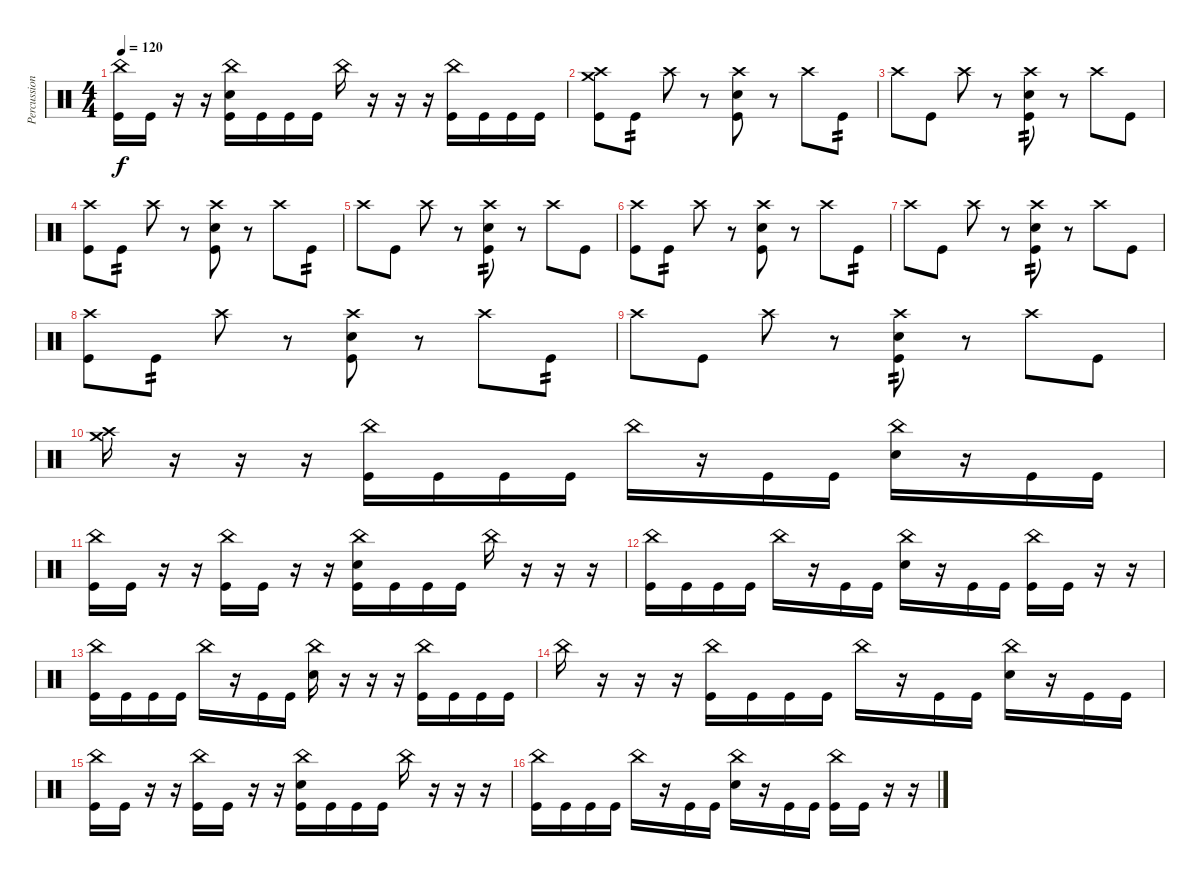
\track ("Percussion" "Percussion") {instrument percussion}
\staff {score}
\articulation defaults
\ts (4 4)
\tempo 120
\clef neutral
\ks c
("China (hit)" "Kick (hit)").16{dy f} "Kick (hit)".16 r.16 r.16 ("China (hit)" "Snare (hit) 2" "Kick (hit)").16 "Kick (hit)".16 "Kick (hit)".16 "Kick (hit)".16 "China (hit)".16 r.16 r.16 r.16 ("China (hit)" "Kick (hit)").16 "Kick (hit)".16 "Kick (hit)".16 "Kick (hit)".16 |
("Crash medium (hit)" "Crash high (hit)" "Kick (hit)").8 "Kick (hit)".8{tp 2} "Crash high (hit)".8 r.8 ("Crash high (hit)" "Snare (hit) 2" "Kick (hit)").8 r.8 "Crash high (hit)".8 "Kick (hit)".8{tp 2} |
"Crash high (hit)".8 "Kick (hit)".8 "Crash high (hit)".8 r.8 ("Crash high (hit)" "Snare (hit) 2" "Kick (hit)").8{tp 2} r.8 "Crash high (hit)".8 "Kick (hit)".8 |
("Crash high (hit)" "Kick (hit)").8 "Kick (hit)".8{tp 2} "Crash high (hit)".8 r.8 ("Crash high (hit)" "Snare (hit) 2" "Kick (hit)").8 r.8 "Crash high (hit)".8 "Kick (hit)".8{tp 2} |
"Crash high (hit)".8 "Kick (hit)".8 "Crash high (hit)".8 r.8 ("Crash high (hit)" "Snare (hit) 2" "Kick (hit)").8{tp 2} r.8 "Crash high (hit)".8 "Kick (hit)".8 |
("Crash high (hit)" "Kick (hit)").8 "Kick (hit)".8{tp 2} "Crash high (hit)".8 r.8 ("Crash high (hit)" "Snare (hit) 2" "Kick (hit)").8 r.8 "Crash high (hit)".8 "Kick (hit)".8{tp 2} |
"Crash high (hit)".8 "Kick (hit)".8 "Crash high (hit)".8 r.8 ("Crash high (hit)" "Snare (hit) 2" "Kick (hit)").8{tp 2} r.8 "Crash high (hit)".8 "Kick (hit)".8 |
("Crash high (hit)" "Kick (hit)").8 "Kick (hit)".8{tp 2} "Crash high (hit)".8 r.8 ("Crash high (hit)" "Snare (hit) 2" "Kick (hit)").8 r.8 "Crash high (hit)".8 "Kick (hit)".8{tp 2} |
"Crash high (hit)".8 "Kick (hit)".8 "Crash high (hit)".8 r.8 ("Crash high (hit)" "Snare (hit) 2" "Kick (hit)").8{tp 2} r.8 "Crash high (hit)".8 "Kick (hit)".8 |
("Crash high (hit)" "Crash medium (hit)").16 r.16 r.16 r.16 ("China (hit)" "Kick (hit)").16 "Kick (hit)".16 "Kick (hit)".16 "Kick (hit)".16 "China (hit)".16 r.16 "Kick (hit)".16 "Kick (hit)".16 ("China (hit)" "Snare (hit) 2").16 r.16 "Kick (hit)".16 "Kick (hit)".16 |
("China (hit)" "Kick (hit)").16 "Kick (hit)".16 r.16 r.16 ("China (hit)" "Kick (hit)").16 "Kick (hit)".16 r.16 r.16 ("China (hit)" "Snare (hit) 2" "Kick (hit)").16 "Kick (hit)".16 "Kick (hit)".16 "Kick (hit)".16 "China (hit)".16 r.16 r.16 r.16 |
("China (hit)" "Kick (hit)").16 "Kick (hit)".16 "Kick (hit)".16 "Kick (hit)".16 "China (hit)".16 r.16 "Kick (hit)".16 "Kick (hit)".16 ("China (hit)" "Snare (hit) 2").16 r.16 "Kick (hit)".16 "Kick (hit)".16 ("China (hit)" "Kick (hit)").16 "Kick (hit)".16 r.16 r.16 |
("China (hit)" "Kick (hit)").16 "Kick (hit)".16 "Kick (hit)".16 "Kick (hit)".16 "China (hit)".16 r.16 "Kick (hit)".16 "Kick (hit)".16 ("China (hit)" "Snare (hit) 2").16 r.16 r.16 r.16 ("China (hit)" "Kick (hit)").16 "Kick (hit)".16 "Kick (hit)".16 "Kick (hit)".16 |
"China (hit)".16 r.16 r.16 r.16 ("China (hit)" "Kick (hit)").16 "Kick (hit)".16 "Kick (hit)".16 "Kick (hit)".16 "China (hit)".16 r.16 "Kick (hit)".16 "Kick (hit)".16 ("China (hit)" "Snare (hit) 2").16 r.16 "Kick (hit)".16 "Kick (hit)".16 |
("China (hit)" "Kick (hit)").16 "Kick (hit)".16 r.16 r.16 ("China (hit)" "Kick (hit)").16 "Kick (hit)".16 r.16 r.16 ("China (hit)" "Snare (hit) 2" "Kick (hit)").16 "Kick (hit)".16 "Kick (hit)".16 "Kick (hit)".16 "China (hit)".16 r.16 r.16 r.16 |
("China (hit)" "Kick (hit)").16 "Kick (hit)".16 "Kick (hit)".16 "Kick (hit)".16 "China (hit)".16 r.16 "Kick (hit)".16 "Kick (hit)".16 ("China (hit)" "Snare (hit) 2").16 r.16 "Kick (hit)".16 "Kick (hit)".16 ("China (hit)" "Kick (hit)").16 "Kick (hit)".16 r.16 r.16
